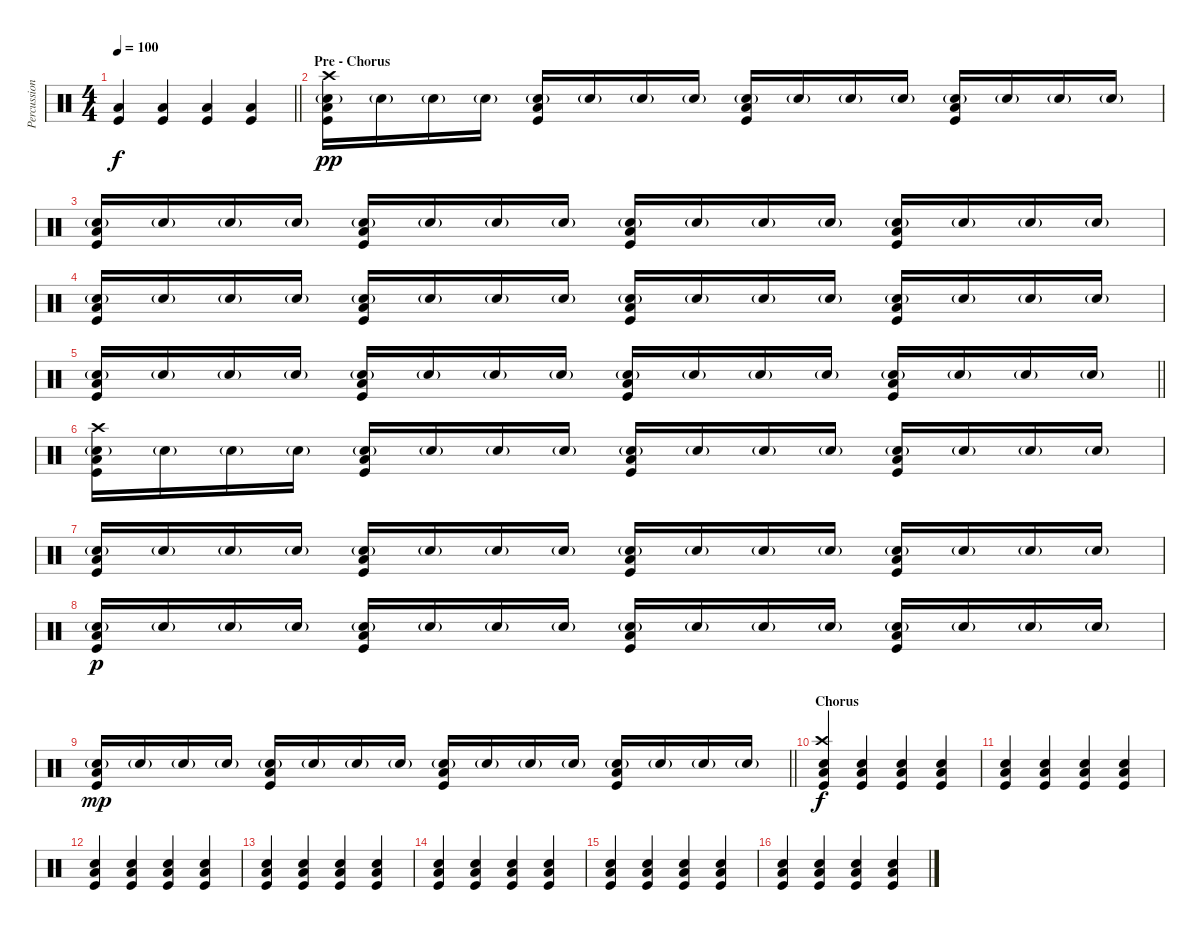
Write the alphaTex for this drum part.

\track ("Percussion" "Percussion") {instrument percussion}
\staff {score}
\articulation defaults
\ts (4 4)
\tempo 100
\clef neutral
\barLineRight lightlight
\ks c
("Kick (hit)" "Low Floor Tom (hit)").4{dy f} ("Kick (hit)" "Low Floor Tom (hit)").4 ("Kick (hit)" "Low Floor Tom (hit)").4 ("Kick (hit)" "Low Floor Tom (hit)").4 |
\section ("" "Pre - Chorus")
("Snare (hit) 2"{g} "Kick (hit)" "Low Floor Tom (hit)" "Crash high (hit)").16{dy pp} "Snare (hit) 2"{g}.16 "Snare (hit) 2"{g}.16 "Snare (hit) 2"{g}.16 ("Snare (hit) 2"{g} "Kick (hit)" "Low Floor Tom (hit)").16 "Snare (hit) 2"{g}.16 "Snare (hit) 2"{g}.16 "Snare (hit) 2"{g}.16 ("Snare (hit) 2"{g} "Kick (hit)" "Low Floor Tom (hit)").16 "Snare (hit) 2"{g}.16 "Snare (hit) 2"{g}.16 "Snare (hit) 2"{g}.16 ("Snare (hit) 2"{g} "Kick (hit)" "Low Floor Tom (hit)").16 "Snare (hit) 2"{g}.16 "Snare (hit) 2"{g}.16 "Snare (hit) 2"{g}.16 |
("Snare (hit) 2"{g} "Kick (hit)" "Low Floor Tom (hit)").16 "Snare (hit) 2"{g}.16 "Snare (hit) 2"{g}.16 "Snare (hit) 2"{g}.16 ("Snare (hit) 2"{g} "Kick (hit)" "Low Floor Tom (hit)").16 "Snare (hit) 2"{g}.16 "Snare (hit) 2"{g}.16 "Snare (hit) 2"{g}.16 ("Snare (hit) 2"{g} "Kick (hit)" "Low Floor Tom (hit)").16 "Snare (hit) 2"{g}.16 "Snare (hit) 2"{g}.16 "Snare (hit) 2"{g}.16 ("Snare (hit) 2"{g} "Kick (hit)" "Low Floor Tom (hit)").16 "Snare (hit) 2"{g}.16 "Snare (hit) 2"{g}.16 "Snare (hit) 2"{g}.16 |
("Snare (hit) 2"{g} "Kick (hit)" "Low Floor Tom (hit)").16 "Snare (hit) 2"{g}.16 "Snare (hit) 2"{g}.16 "Snare (hit) 2"{g}.16 ("Snare (hit) 2"{g} "Kick (hit)" "Low Floor Tom (hit)").16 "Snare (hit) 2"{g}.16 "Snare (hit) 2"{g}.16 "Snare (hit) 2"{g}.16 ("Snare (hit) 2"{g} "Kick (hit)" "Low Floor Tom (hit)").16 "Snare (hit) 2"{g}.16 "Snare (hit) 2"{g}.16 "Snare (hit) 2"{g}.16 ("Snare (hit) 2"{g} "Kick (hit)" "Low Floor Tom (hit)").16 "Snare (hit) 2"{g}.16 "Snare (hit) 2"{g}.16 "Snare (hit) 2"{g}.16 |
\barLineRight lightlight
("Snare (hit) 2"{g} "Kick (hit)" "Low Floor Tom (hit)").16 "Snare (hit) 2"{g}.16 "Snare (hit) 2"{g}.16 "Snare (hit) 2"{g}.16 ("Snare (hit) 2"{g} "Kick (hit)" "Low Floor Tom (hit)").16 "Snare (hit) 2"{g}.16 "Snare (hit) 2"{g}.16 "Snare (hit) 2"{g}.16 ("Snare (hit) 2"{g} "Kick (hit)" "Low Floor Tom (hit)").16 "Snare (hit) 2"{g}.16 "Snare (hit) 2"{g}.16 "Snare (hit) 2"{g}.16 ("Snare (hit) 2"{g} "Kick (hit)" "Low Floor Tom (hit)").16 "Snare (hit) 2"{g}.16 "Snare (hit) 2"{g}.16 "Snare (hit) 2"{g}.16 |
("Snare (hit) 2"{g} "Kick (hit)" "Low Floor Tom (hit)" "Crash high (hit)").16 "Snare (hit) 2"{g}.16 "Snare (hit) 2"{g}.16 "Snare (hit) 2"{g}.16 ("Snare (hit) 2"{g} "Kick (hit)" "Low Floor Tom (hit)").16 "Snare (hit) 2"{g}.16 "Snare (hit) 2"{g}.16 "Snare (hit) 2"{g}.16 ("Snare (hit) 2"{g} "Kick (hit)" "Low Floor Tom (hit)").16 "Snare (hit) 2"{g}.16 "Snare (hit) 2"{g}.16 "Snare (hit) 2"{g}.16 ("Snare (hit) 2"{g} "Kick (hit)" "Low Floor Tom (hit)").16 "Snare (hit) 2"{g}.16 "Snare (hit) 2"{g}.16 "Snare (hit) 2"{g}.16 |
("Snare (hit) 2"{g} "Kick (hit)" "Low Floor Tom (hit)").16 "Snare (hit) 2"{g}.16 "Snare (hit) 2"{g}.16 "Snare (hit) 2"{g}.16 ("Snare (hit) 2"{g} "Kick (hit)" "Low Floor Tom (hit)").16 "Snare (hit) 2"{g}.16 "Snare (hit) 2"{g}.16 "Snare (hit) 2"{g}.16 ("Snare (hit) 2"{g} "Kick (hit)" "Low Floor Tom (hit)").16 "Snare (hit) 2"{g}.16 "Snare (hit) 2"{g}.16 "Snare (hit) 2"{g}.16 ("Snare (hit) 2"{g} "Kick (hit)" "Low Floor Tom (hit)").16 "Snare (hit) 2"{g}.16 "Snare (hit) 2"{g}.16 "Snare (hit) 2"{g}.16 |
("Snare (hit) 2"{g} "Kick (hit)" "Low Floor Tom (hit)").16{dy p} "Snare (hit) 2"{g}.16 "Snare (hit) 2"{g}.16 "Snare (hit) 2"{g}.16 ("Snare (hit) 2"{g} "Kick (hit)" "Low Floor Tom (hit)").16 "Snare (hit) 2"{g}.16 "Snare (hit) 2"{g}.16 "Snare (hit) 2"{g}.16 ("Snare (hit) 2"{g} "Kick (hit)" "Low Floor Tom (hit)").16 "Snare (hit) 2"{g}.16 "Snare (hit) 2"{g}.16 "Snare (hit) 2"{g}.16 ("Snare (hit) 2"{g} "Kick (hit)" "Low Floor Tom (hit)").16 "Snare (hit) 2"{g}.16 "Snare (hit) 2"{g}.16 "Snare (hit) 2"{g}.16 |
\barLineRight lightlight
("Snare (hit) 2"{g} "Kick (hit)" "Low Floor Tom (hit)").16{dy mp} "Snare (hit) 2"{g}.16 "Snare (hit) 2"{g}.16 "Snare (hit) 2"{g}.16 ("Snare (hit) 2"{g} "Kick (hit)" "Low Floor Tom (hit)").16 "Snare (hit) 2"{g}.16 "Snare (hit) 2"{g}.16 "Snare (hit) 2"{g}.16 ("Snare (hit) 2"{g} "Kick (hit)" "Low Floor Tom (hit)").16 "Snare (hit) 2"{g}.16 "Snare (hit) 2"{g}.16 "Snare (hit) 2"{g}.16 ("Snare (hit) 2"{g} "Kick (hit)" "Low Floor Tom (hit)").16 "Snare (hit) 2"{g}.16 "Snare (hit) 2"{g}.16 "Snare (hit) 2"{g}.16 |
\section ("" "Chorus")
("Electric Snare (hit)" "Kick (hit)" "Low Floor Tom (hit)" "Crash high (hit)").4{dy f} ("Electric Snare (hit)" "Kick (hit)" "Low Floor Tom (hit)").4 ("Electric Snare (hit)" "Kick (hit)" "Low Floor Tom (hit)").4 ("Electric Snare (hit)" "Kick (hit)" "Low Floor Tom (hit)").4 |
("Electric Snare (hit)" "Kick (hit)" "Low Floor Tom (hit)").4 ("Electric Snare (hit)" "Kick (hit)" "Low Floor Tom (hit)").4 ("Electric Snare (hit)" "Kick (hit)" "Low Floor Tom (hit)").4 ("Electric Snare (hit)" "Kick (hit)" "Low Floor Tom (hit)").4 |
("Electric Snare (hit)" "Kick (hit)" "Low Floor Tom (hit)").4 ("Electric Snare (hit)" "Kick (hit)" "Low Floor Tom (hit)").4 ("Electric Snare (hit)" "Kick (hit)" "Low Floor Tom (hit)").4 ("Electric Snare (hit)" "Kick (hit)" "Low Floor Tom (hit)").4 |
("Electric Snare (hit)" "Kick (hit)" "Low Floor Tom (hit)").4 ("Electric Snare (hit)" "Kick (hit)" "Low Floor Tom (hit)").4 ("Electric Snare (hit)" "Kick (hit)" "Low Floor Tom (hit)").4 ("Electric Snare (hit)" "Kick (hit)" "Low Floor Tom (hit)").4 |
("Electric Snare (hit)" "Kick (hit)" "Low Floor Tom (hit)").4 ("Electric Snare (hit)" "Kick (hit)" "Low Floor Tom (hit)").4 ("Electric Snare (hit)" "Kick (hit)" "Low Floor Tom (hit)").4 ("Electric Snare (hit)" "Kick (hit)" "Low Floor Tom (hit)").4 |
("Electric Snare (hit)" "Kick (hit)" "Low Floor Tom (hit)").4 ("Electric Snare (hit)" "Kick (hit)" "Low Floor Tom (hit)").4 ("Electric Snare (hit)" "Kick (hit)" "Low Floor Tom (hit)").4 ("Electric Snare (hit)" "Kick (hit)" "Low Floor Tom (hit)").4 |
("Electric Snare (hit)" "Kick (hit)" "Low Floor Tom (hit)").4 ("Electric Snare (hit)" "Kick (hit)" "Low Floor Tom (hit)").4 ("Electric Snare (hit)" "Kick (hit)" "Low Floor Tom (hit)").4 ("Electric Snare (hit)" "Kick (hit)" "Low Floor Tom (hit)").4
